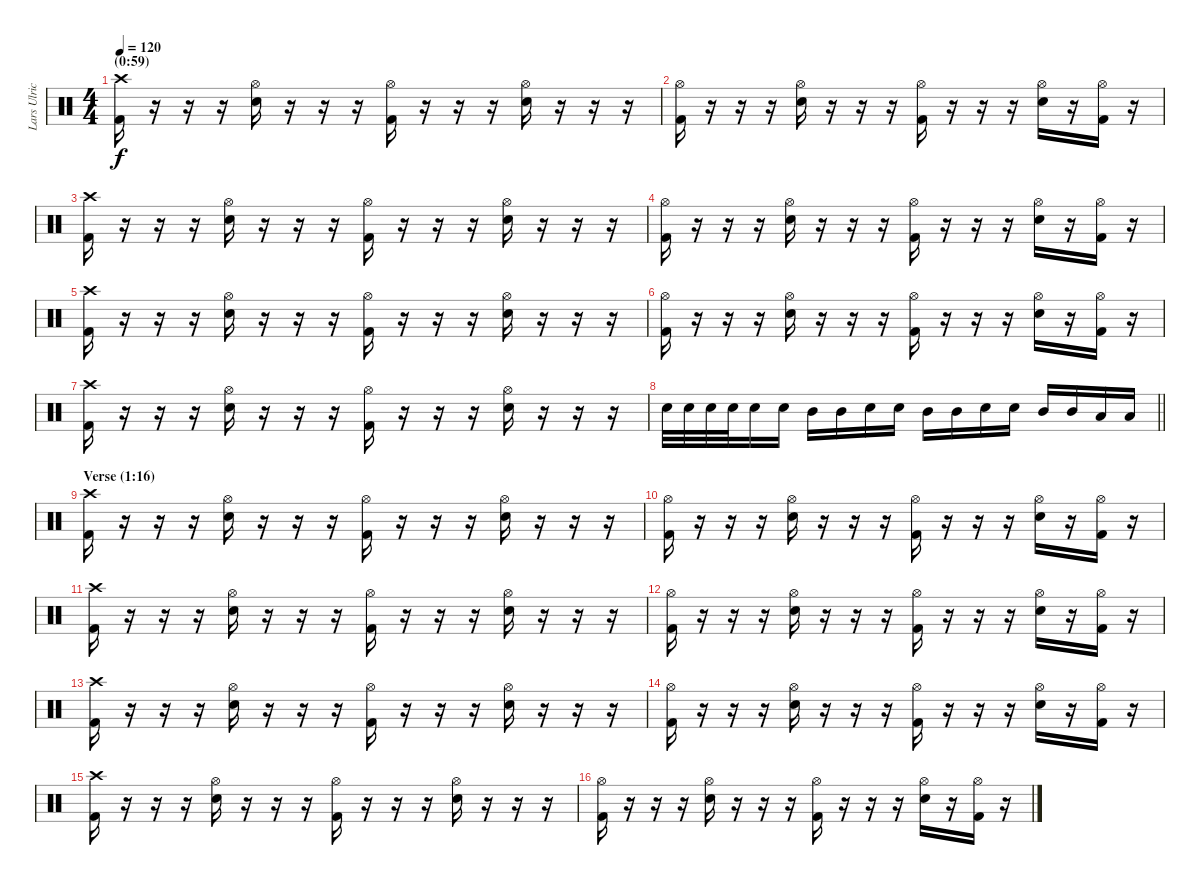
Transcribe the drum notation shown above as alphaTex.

\track ("Lars Ulrich" "Lars Ulric") {instrument percussion}
\staff {score}
\articulation defaults
\ts (4 4)
\section ("" "(0:59)")
\tempo 120
\clef neutral
\ks c
("Crash high (hit)" "Kick (hit) 2").16{dy f} r.16 r.16 r.16 ("Electric Snare (hit)" "Hi-Hat (open)").16 r.16 r.16 r.16 ("Hi-Hat (open)" "Kick (hit) 2").16 r.16 r.16 r.16 ("Electric Snare (hit)" "Hi-Hat (open)").16 r.16 r.16 r.16 |
("Hi-Hat (open)" "Kick (hit) 2").16 r.16 r.16 r.16 ("Electric Snare (hit)" "Hi-Hat (open)").16 r.16 r.16 r.16 ("Hi-Hat (open)" "Kick (hit) 2").16 r.16 r.16 r.16 ("Electric Snare (hit)" "Hi-Hat (open)").16 r.16 ("Hi-Hat (open)" "Kick (hit) 2").16 r.16 |
("Crash high (hit)" "Kick (hit) 2").16 r.16 r.16 r.16 ("Electric Snare (hit)" "Hi-Hat (open)").16 r.16 r.16 r.16 ("Hi-Hat (open)" "Kick (hit) 2").16 r.16 r.16 r.16 ("Electric Snare (hit)" "Hi-Hat (open)").16 r.16 r.16 r.16 |
("Hi-Hat (open)" "Kick (hit) 2").16 r.16 r.16 r.16 ("Electric Snare (hit)" "Hi-Hat (open)").16 r.16 r.16 r.16 ("Hi-Hat (open)" "Kick (hit) 2").16 r.16 r.16 r.16 ("Electric Snare (hit)" "Hi-Hat (open)").16 r.16 ("Hi-Hat (open)" "Kick (hit) 2").16 r.16 |
("Crash high (hit)" "Kick (hit) 2").16 r.16 r.16 r.16 ("Electric Snare (hit)" "Hi-Hat (open)").16 r.16 r.16 r.16 ("Hi-Hat (open)" "Kick (hit) 2").16 r.16 r.16 r.16 ("Electric Snare (hit)" "Hi-Hat (open)").16 r.16 r.16 r.16 |
("Hi-Hat (open)" "Kick (hit) 2").16 r.16 r.16 r.16 ("Electric Snare (hit)" "Hi-Hat (open)").16 r.16 r.16 r.16 ("Hi-Hat (open)" "Kick (hit) 2").16 r.16 r.16 r.16 ("Electric Snare (hit)" "Hi-Hat (open)").16 r.16 ("Hi-Hat (open)" "Kick (hit) 2").16 r.16 |
("Crash high (hit)" "Kick (hit) 2").16 r.16 r.16 r.16 ("Electric Snare (hit)" "Hi-Hat (open)").16 r.16 r.16 r.16 ("Hi-Hat (open)" "Kick (hit) 2").16 r.16 r.16 r.16 ("Electric Snare (hit)" "Hi-Hat (open)").16 r.16 r.16 r.16 |
\barLineRight lightlight "Electric Snare (hit)".32 "Electric Snare (hit)".32 "Electric Snare (hit)".32 "Electric Snare (hit)".32 "Electric Snare (hit)".16 "Electric Snare (hit)".16 "Mid Tom (hit)".16 "Mid Tom (hit)".16 "Electric Snare (hit)".16 "Electric Snare (hit)".16 "Mid Tom (hit)".16 "Mid Tom (hit)".16 "Electric Snare (hit)".16 "Electric Snare (hit)".16 "Mid Tom (hit)".16 "Mid Tom (hit)".16 "Low Tom (hit)".16 "Low Tom (hit)".16
|
\section ("" "Verse (1:16)")
("Crash high (hit)" "Kick (hit) 2").16 r.16 r.16 r.16 ("Electric Snare (hit)" "Hi-Hat (open)").16 r.16 r.16 r.16 ("Hi-Hat (open)" "Kick (hit) 2").16 r.16 r.16 r.16 ("Electric Snare (hit)" "Hi-Hat (open)").16 r.16 r.16 r.16 |
("Hi-Hat (open)" "Kick (hit) 2").16 r.16 r.16 r.16 ("Electric Snare (hit)" "Hi-Hat (open)").16 r.16 r.16 r.16 ("Hi-Hat (open)" "Kick (hit) 2").16 r.16 r.16 r.16 ("Electric Snare (hit)" "Hi-Hat (open)").16 r.16 ("Hi-Hat (open)" "Kick (hit) 2").16 r.16 |
("Crash high (hit)" "Kick (hit) 2").16 r.16 r.16 r.16 ("Electric Snare (hit)" "Hi-Hat (open)").16 r.16 r.16 r.16 ("Hi-Hat (open)" "Kick (hit) 2").16 r.16 r.16 r.16 ("Electric Snare (hit)" "Hi-Hat (open)").16 r.16 r.16 r.16 |
("Hi-Hat (open)" "Kick (hit) 2").16 r.16 r.16 r.16 ("Electric Snare (hit)" "Hi-Hat (open)").16 r.16 r.16 r.16 ("Hi-Hat (open)" "Kick (hit) 2").16 r.16 r.16 r.16 ("Electric Snare (hit)" "Hi-Hat (open)").16 r.16 ("Hi-Hat (open)" "Kick (hit) 2").16 r.16 |
("Crash high (hit)" "Kick (hit) 2").16 r.16 r.16 r.16 ("Electric Snare (hit)" "Hi-Hat (open)").16 r.16 r.16 r.16 ("Hi-Hat (open)" "Kick (hit) 2").16 r.16 r.16 r.16 ("Electric Snare (hit)" "Hi-Hat (open)").16 r.16 r.16 r.16 |
("Hi-Hat (open)" "Kick (hit) 2").16 r.16 r.16 r.16 ("Electric Snare (hit)" "Hi-Hat (open)").16 r.16 r.16 r.16 ("Hi-Hat (open)" "Kick (hit) 2").16 r.16 r.16 r.16 ("Electric Snare (hit)" "Hi-Hat (open)").16 r.16 ("Hi-Hat (open)" "Kick (hit) 2").16 r.16 |
("Crash high (hit)" "Kick (hit) 2").16 r.16 r.16 r.16 ("Electric Snare (hit)" "Hi-Hat (open)").16 r.16 r.16 r.16 ("Hi-Hat (open)" "Kick (hit) 2").16 r.16 r.16 r.16 ("Electric Snare (hit)" "Hi-Hat (open)").16 r.16 r.16 r.16 |
("Hi-Hat (open)" "Kick (hit) 2").16 r.16 r.16 r.16 ("Electric Snare (hit)" "Hi-Hat (open)").16 r.16 r.16 r.16 ("Hi-Hat (open)" "Kick (hit) 2").16 r.16 r.16 r.16 ("Electric Snare (hit)" "Hi-Hat (open)").16 r.16 ("Hi-Hat (open)" "Kick (hit) 2").16 r.16
